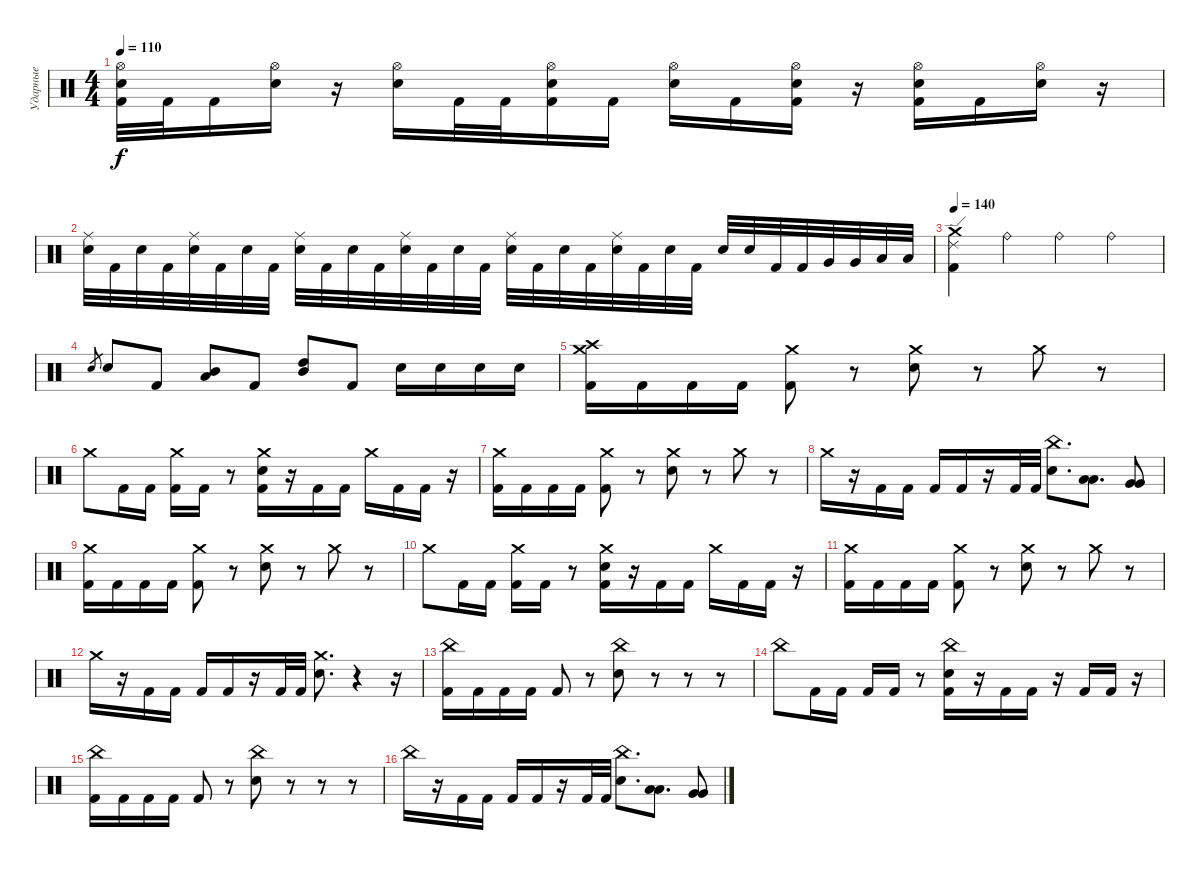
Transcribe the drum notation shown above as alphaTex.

\track ("Ударные" "Ударные") {instrument percussion}
\staff {score}
\articulation defaults
\ts (4 4)
\tempo 110
\clef neutral
\ks c
("Kick (hit) 2" "Electric Snare (hit)" "Hi-Hat (open)").32{dy f} "Kick (hit) 2".32 "Kick (hit) 2".16 ("Electric Snare (hit)" "Hi-Hat (open)").16 r.16 ("Electric Snare (hit)" "Hi-Hat (open)").16 "Kick (hit) 2".32 "Kick (hit) 2".32 ("Kick (hit) 2" "Electric Snare (hit)" "Hi-Hat (open)").16 "Kick (hit) 2".16 ("Electric Snare (hit)" "Hi-Hat (open)").16 "Kick (hit) 2".16 ("Kick (hit) 2" "Snare (hit) 2" "Hi-Hat (open)").16 r.16 ("Electric Snare (hit)" "Kick (hit) 2" "Hi-Hat (open)").16 "Kick (hit) 2".16 ("Electric Snare (hit)" "Hi-Hat (open)").16 r.16 |
("Electric Snare (hit)" "Ride (middle)").32 "Kick (hit) 2".32 "Electric Snare (hit)".32 "Kick (hit) 2".32 ("Electric Snare (hit)" "Ride (middle)").32 "Kick (hit) 2".32 "Electric Snare (hit)".32 "Kick (hit) 2".32 ("Electric Snare (hit)" "Ride (middle)").32 "Kick (hit) 2".32 "Electric Snare (hit)".32 "Kick (hit) 2".32 ("Electric Snare (hit)" "Ride (middle)").32 "Kick (hit) 2".32 "Electric Snare (hit)".32 "Kick (hit) 2".32 ("Electric Snare (hit)" "Ride (middle)").32 "Kick (hit) 2".32 "Electric Snare (hit)".32 "Kick (hit) 2".32 ("Electric Snare (hit)" "Ride (middle)").32 "Kick (hit) 2".32 "Electric Snare (hit)".32 "Kick (hit) 2".32 "Electric Snare (hit)".32 "Electric Snare (hit)".32 "Kick (hit) 2".32 "Kick (hit) 2".32 "Very Low Tom (hit)".32 "Very Low Tom (hit)".32 "Low Floor Tom (hit)".32 "Low Floor Tom (hit)".32 |
\tempo 140
("Ride (edge) 2" "Crash medium (hit)" "Kick (hit) 2").4 "Ride (bell)".4 "Ride (bell)".4 "Ride (bell)".4 |
"Electric Snare (hit)".8{gr} "Electric Snare (hit)".8 "Kick (hit) 2".8 ("Mid Tom (hit)" "Low Tom (hit)").8 "Kick (hit) 2".8 ("High Tom (hit)" "Mid Tom (hit)").8 "Kick (hit) 2".8 "Electric Snare (hit)".16 "Electric Snare (hit)".16 "Electric Snare (hit)".16 "Electric Snare (hit)".16 |
("Crash medium (hit)" "Crash high (hit)" "Kick (hit) 2").16 "Kick (hit) 2".16 "Kick (hit) 2".16 "Kick (hit) 2".16 ("Crash medium (hit)" "Kick (hit) 2").8 r.8 ("Crash medium (hit)" "Electric Snare (hit)").8 r.8 "Crash medium (hit)".8 r.8 |
"Crash medium (hit)".8 "Kick (hit) 2".16 "Kick (hit) 2".16 ("Crash medium (hit)" "Kick (hit) 2").16 "Kick (hit) 2".16 r.8 ("Crash medium (hit)" "Electric Snare (hit)" "Kick (hit) 2").16 r.16 "Kick (hit) 2".16 "Kick (hit) 2".16 "Crash medium (hit)".16 "Kick (hit) 2".16 "Kick (hit) 2".16 r.16 |
("Crash medium (hit)" "Kick (hit) 2").16 "Kick (hit) 2".16 "Kick (hit) 2".16 "Kick (hit) 2".16 ("Crash medium (hit)" "Kick (hit) 2").8 r.8 ("Crash medium (hit)" "Electric Snare (hit)").8 r.8 "Crash medium (hit)".8 r.8 |
"Crash medium (hit)".16 r.16 "Kick (hit) 2".16 "Kick (hit) 2".16 "Kick (hit) 2".16 "Kick (hit) 2".16 r.16 "Kick (hit) 2".32 "Kick (hit) 2".32 ("China (hit)" "Electric Snare (hit)").8{d} ("Low Tom (hit)" "Low Tom (hit)").8{d} ("Very Low Tom (hit)" "Very Low Tom (hit)").8 |
("Crash medium (hit)" "Kick (hit) 2").16 "Kick (hit) 2".16 "Kick (hit) 2".16 "Kick (hit) 2".16 ("Crash medium (hit)" "Kick (hit) 2").8 r.8 ("Crash medium (hit)" "Electric Snare (hit)").8 r.8 "Crash medium (hit)".8 r.8 |
"Crash medium (hit)".8 "Kick (hit) 2".16 "Kick (hit) 2".16 ("Crash medium (hit)" "Kick (hit) 2").16 "Kick (hit) 2".16 r.8 ("Crash medium (hit)" "Electric Snare (hit)" "Kick (hit) 2").16 r.16 "Kick (hit) 2".16 "Kick (hit) 2".16 "Crash medium (hit)".16 "Kick (hit) 2".16 "Kick (hit) 2".16 r.16 |
("Crash medium (hit)" "Kick (hit) 2").16 "Kick (hit) 2".16 "Kick (hit) 2".16 "Kick (hit) 2".16 ("Crash medium (hit)" "Kick (hit) 2").8 r.8 ("Crash medium (hit)" "Electric Snare (hit)").8 r.8 "Crash medium (hit)".8 r.8 |
"Crash medium (hit)".16 r.16 "Kick (hit) 2".16 "Kick (hit) 2".16 "Kick (hit) 2".16 "Kick (hit) 2".16 r.16 "Kick (hit) 2".32 "Kick (hit) 2".32 ("Crash medium (hit)" "Electric Snare (hit)").8{d} r.4 r.16 |
("China (hit)" "Kick (hit) 2").16 "Kick (hit) 2".16 "Kick (hit) 2".16 "Kick (hit) 2".16 "Kick (hit) 2".8 r.8 ("China (hit)" "Electric Snare (hit)").8 r.8 r.8 r.8 |
"China (hit)".8 "Kick (hit) 2".16 "Kick (hit) 2".16 "Kick (hit) 2".16 "Kick (hit) 2".16 r.8 ("China (hit)" "Electric Snare (hit)" "Kick (hit) 2").16 r.16 "Kick (hit) 2".16 "Kick (hit) 2".16 r.16 "Kick (hit) 2".16 "Kick (hit) 2".16 r.16 |
("China (hit)" "Kick (hit) 2").16 "Kick (hit) 2".16 "Kick (hit) 2".16 "Kick (hit) 2".16 "Kick (hit) 2".8 r.8 ("China (hit)" "Electric Snare (hit)").8 r.8 r.8 r.8 |
"China (hit)".16 r.16 "Kick (hit) 2".16 "Kick (hit) 2".16 "Kick (hit) 2".16 "Kick (hit) 2".16 r.16 "Kick (hit) 2".32 "Kick (hit) 2".32 ("China (hit)" "Electric Snare (hit)").8{d} ("Low Tom (hit)" "Low Tom (hit)").8{d} ("Very Low Tom (hit)" "Very Low Tom (hit)").8
